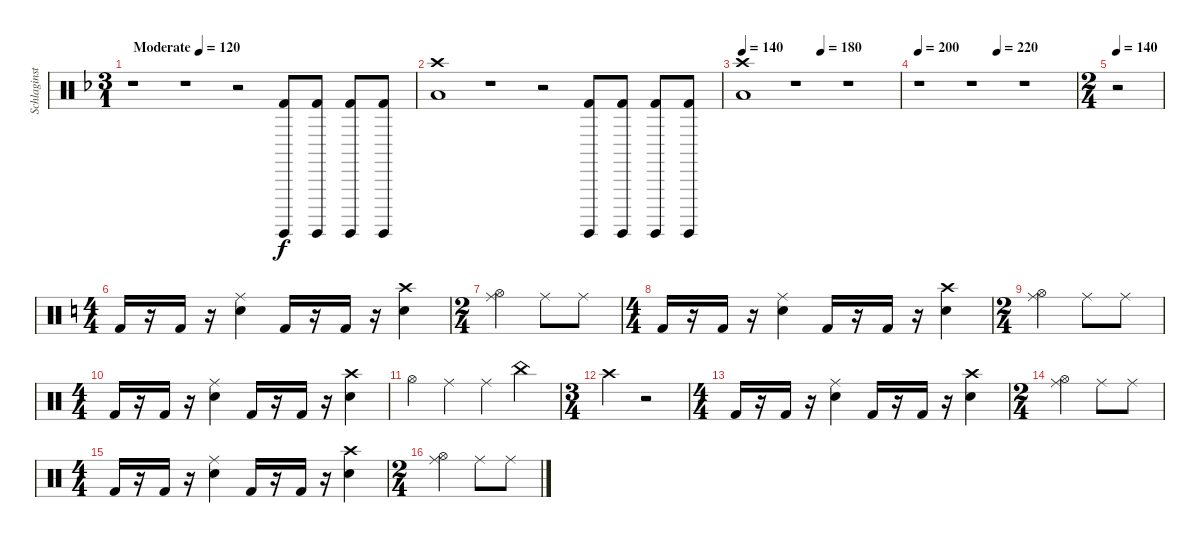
\track ("Schlaginstrumente - Auswahl" "Schlaginst") {instrument percussion}
\staff {score}
\articulation defaults
\ts (3 1)
\tempo (120 "Moderate")
\clef neutral
\ks f
r.1{dy f} r.1 r.2 ("Surdo (hit)" "Kick (hit) 2").8 ("Surdo (hit)" "Kick (hit) 2").8 ("Surdo (hit)" "Kick (hit) 2").8 ("Surdo (hit)" "Kick (hit) 2").8 |
("Crash high (hit)" "Low Floor Tom (hit)").1 r.1 r.2 ("Surdo (hit)" "Kick (hit) 2").8 ("Surdo (hit)" "Kick (hit) 2").8 ("Surdo (hit)" "Kick (hit) 2").8 ("Surdo (hit)" "Kick (hit) 2").8 |
\tempo 140
\tempo (180 0.5)
("Crash high (hit)" "Low Floor Tom (hit)").1 r.1 r.1 |
\tempo 200
\tempo (220 0.5)
r.1 r.1 r.1 |
\ts (2 4)
\tempo 140
r.2 |
\ts (4 4)
\ks c "Kick (hit) 2".16
r.16 "Kick (hit) 2".16 r.16 ("Snare (hit) 2" "Ride (middle)").4 "Kick (hit) 2".16 r.16 "Kick (hit) 2".16 r.16 ("Snare (hit) 2" "Crash high (hit)").4 |
\ts (2 4)
("Hi-Hat (open)" "Ride (middle)").4 "Ride (middle)".8 "Ride (middle)".8 |
\ts (4 4)
"Kick (hit) 2".16 r.16 "Kick (hit) 2".16 r.16 ("Snare (hit) 2" "Ride (middle)").4 "Kick (hit) 2".16 r.16 "Kick (hit) 2".16 r.16 ("Snare (hit) 2" "Crash high (hit)").4 |
\ts (2 4)
("Hi-Hat (open)" "Ride (middle)").4 "Ride (middle)".8 "Ride (middle)".8 |
\ts (4 4)
"Kick (hit) 2".16 r.16 "Kick (hit) 2".16 r.16 ("Snare (hit) 2" "Ride (middle)").4 "Kick (hit) 2".16 r.16 "Kick (hit) 2".16 r.16 ("Snare (hit) 2" "Crash high (hit)").4 |
"Hi-Hat (open)".4 "Ride (middle)".4 "Ride (middle)".4 "China (hit)".4 |
\ts (3 4)
"Crash high (hit)".4 r.2 |
\ts (4 4)
"Kick (hit) 2".16 r.16 "Kick (hit) 2".16 r.16 ("Snare (hit) 2" "Ride (middle)").4 "Kick (hit) 2".16 r.16 "Kick (hit) 2".16 r.16 ("Snare (hit) 2" "Crash high (hit)").4 |
\ts (2 4)
("Hi-Hat (open)" "Ride (middle)").4 "Ride (middle)".8 "Ride (middle)".8 |
\ts (4 4)
"Kick (hit) 2".16 r.16 "Kick (hit) 2".16 r.16 ("Snare (hit) 2" "Ride (middle)").4 "Kick (hit) 2".16 r.16 "Kick (hit) 2".16 r.16 ("Snare (hit) 2" "Crash high (hit)").4 |
\ts (2 4)
("Hi-Hat (open)" "Ride (middle)").4 "Ride (middle)".8 "Ride (middle)".8
